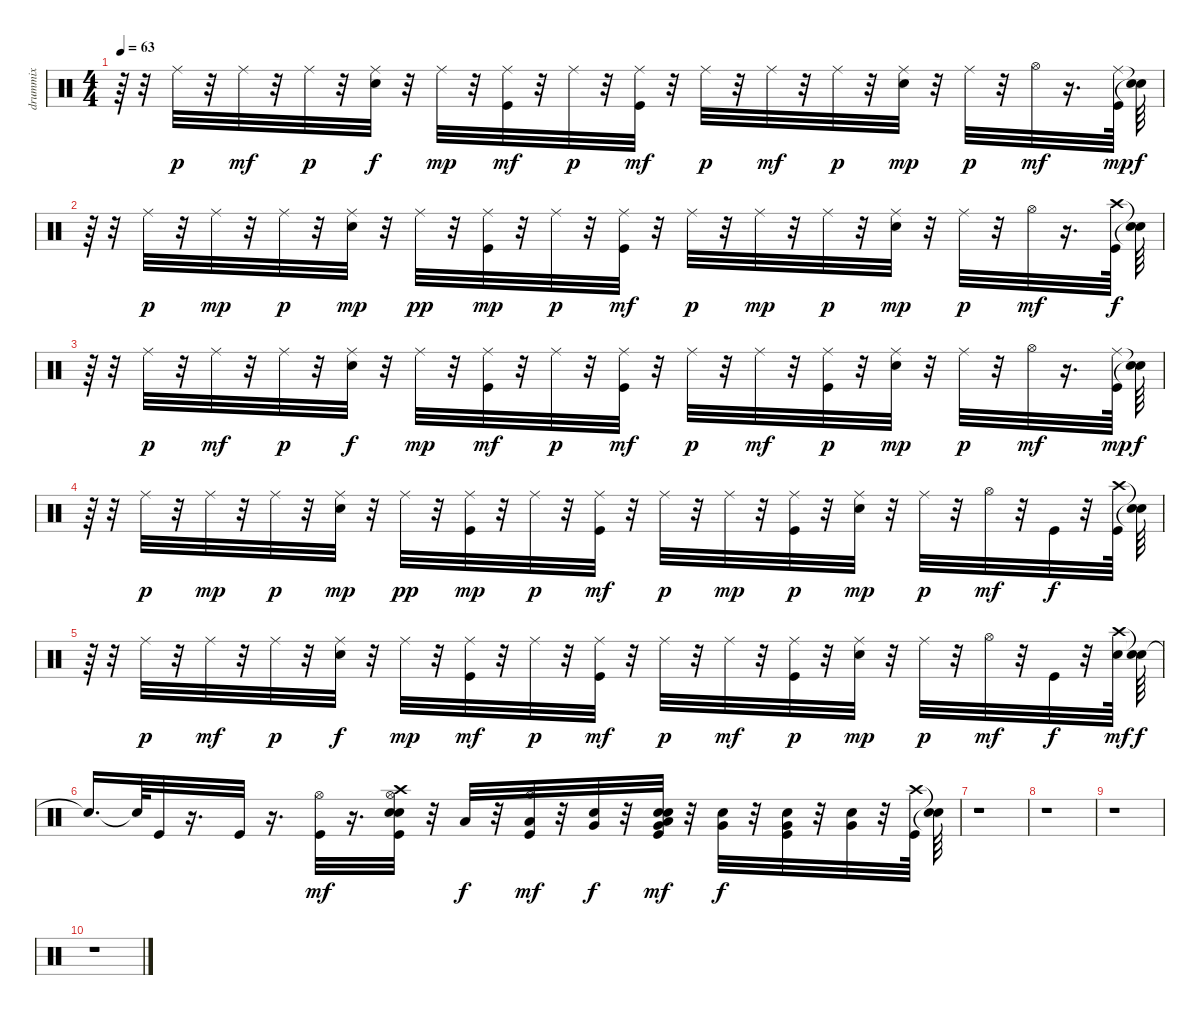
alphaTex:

\track ("drummix" "drummix") {instrument percussion}
\staff {score}
\articulation defaults
\ts (4 4)
\tempo 63
\clef neutral
\ks c
r.64{dy f} r.32 "Ride (middle)".32{dy p} r.32 "Ride (middle)".32{dy mf} r.32 "Ride (middle)".32{dy p} r.32 ("Snare (hit) 2" "Ride (middle)").32{dy f} r.32 "Ride (middle)".32{dy mp} r.32 ("Kick (hit)" "Ride (middle)").32{dy mf} r.32 "Ride (middle)".32{dy p} r.32 ("Kick (hit)" "Ride (middle)").32{dy mf} r.32 "Ride (middle)".32{dy p} r.32 "Ride (middle)".32{dy mf} r.32 "Ride (middle)".32{dy p} r.32 ("Snare (hit) 2" "Ride (middle)").32{dy mp} r.32 "Ride (middle)".32{dy p} r.32 "Hi-Hat (open)".32{dy mf} r.16{d} ("Kick (hit)" "Ride (middle)").64{dy mp} ("Snare (hit)"{t} "Snare (hit)"{t}).64{dy f} |
r.64 r.32 "Ride (middle)".32{dy p} r.32 "Ride (middle)".32{dy mp} r.32 "Ride (middle)".32{dy p} r.32 ("Snare (hit) 2" "Ride (middle)").32{dy mp} r.32 "Ride (middle)".32{dy pp} r.32 ("Kick (hit)" "Ride (middle)").32{dy mp} r.32 "Ride (middle)".32{dy p} r.32 ("Kick (hit)" "Ride (middle)").32{dy mf} r.32 "Ride (middle)".32{dy p} r.32 "Ride (middle)".32{dy mp} r.32 "Ride (middle)".32{dy p} r.32 ("Snare (hit) 2" "Ride (middle)").32{dy mp} r.32 "Ride (middle)".32{dy p} r.32 "Hi-Hat (open)".32{dy mf} r.16{d} ("Kick (hit)" "Crash high (hit)").64{dy f} ("Snare (hit)"{t} "Snare (hit)"{t}).64 |
r.64 r.32 "Ride (middle)".32{dy p} r.32 "Ride (middle)".32{dy mf} r.32 "Ride (middle)".32{dy p} r.32 ("Ride (middle)" "Snare (hit) 2").32{dy f} r.32 "Ride (middle)".32{dy mp} r.32 ("Kick (hit)" "Ride (middle)").32{dy mf} r.32 "Ride (middle)".32{dy p} r.32 ("Kick (hit)" "Ride (middle)").32{dy mf} r.32 "Ride (middle)".32{dy p} r.32 "Ride (middle)".32{dy mf} r.32 ("Kick (hit)" "Ride (middle)").32{dy p} r.32 ("Snare (hit) 2" "Ride (middle)").32{dy mp} r.32 "Ride (middle)".32{dy p} r.32 "Hi-Hat (open)".32{dy mf} r.16{d} ("Kick (hit)" "Ride (middle)").64{dy mp} ("Snare (hit)"{t} "Snare (hit)"{t}).64{dy f} |
r.64 r.32 "Ride (middle)".32{dy p} r.32 "Ride (middle)".32{dy mp} r.32 "Ride (middle)".32{dy p} r.32 ("Snare (hit) 2" "Ride (middle)").32{dy mp} r.32 "Ride (middle)".32{dy pp} r.32 ("Ride (middle)" "Kick (hit)").32{dy mp} r.32 "Ride (middle)".32{dy p} r.32 ("Kick (hit)" "Ride (middle)").32{dy mf} r.32 "Ride (middle)".32{dy p} r.32 "Ride (middle)".32{dy mp} r.32 ("Kick (hit)" "Ride (middle)").32{dy p} r.32 ("Snare (hit) 2" "Ride (middle)").32{dy mp} r.32 "Ride (middle)".32{dy p} r.32 "Hi-Hat (open)".32{dy mf} r.32 "Kick (hit)".32{dy f} r.32 ("Kick (hit)" "Crash high (hit)").64 ("Snare (hit)"{t} "Snare (hit)"{t}).64 |
r.64 r.32 "Ride (middle)".32{dy p} r.32 "Ride (middle)".32{dy mf} r.32 "Ride (middle)".32{dy p} r.32 ("Snare (hit) 2" "Ride (middle)").32{dy f} r.32 "Ride (middle)".32{dy mp} r.32 ("Kick (hit)" "Ride (middle)").32{dy mf} r.32 "Ride (middle)".32{dy p} r.32 ("Kick (hit)" "Ride (middle)").32{dy mf} r.32 "Ride (middle)".32{dy p} r.32 "Ride (middle)".32{dy mf} r.32 ("Kick (hit)" "Ride (middle)").32{dy p} r.32 ("Snare (hit) 2" "Ride (middle)").32{dy mp} r.32 "Ride (middle)".32{dy p} r.32 "Hi-Hat (open)".32{dy mf} r.32 "Kick (hit)".32{dy f} r.32 ("Snare (hit) 2" "Crash high (hit)").64{dy mf} ("Snare (hit)"{t} "Snare (hit)"{t}).64{dy f} |
"Snare (hit)"{t}.16{d} "Snare (hit)"{t}.64 "Kick (hit)".32 r.16{d} "Kick (hit)".32 r.16{d} ("Kick (hit)" "Hi-Hat (open)").32{dy mf} r.16{d} ("Snare (hit) 2" "Kick (hit)" "Snare (hit) 2" "Hi-Hat (open)" "Crash high (hit)").32 r.32 "Low Tom (hit)".32{dy f} r.32 ("Kick (hit)" "Low Tom (hit)" "Hi-Hat (open)").32{dy mf} r.32 ("Snare (hit) 2" "Very Low Tom (hit)").32{dy f} r.32 ("Kick (hit)" "Snare (hit) 2" "Electric Snare (hit)" "Very Low Tom (hit)" "Low Tom (hit)").32{dy mf} r.32 ("Snare (hit) 2" "Very Low Tom (hit)").32{dy f} r.32 ("Kick (hit)" "Snare (hit) 2" "Very Low Tom (hit)").32 r.32 ("Snare (hit) 2" "Very Low Tom (hit)").32 r.32 ("Kick (hit)" "Crash high (hit)").64 ("Snare (hit)"{t} "Snare (hit)"{t}).64 |
r.1 |
r.1 |
r.1 |
r.1
